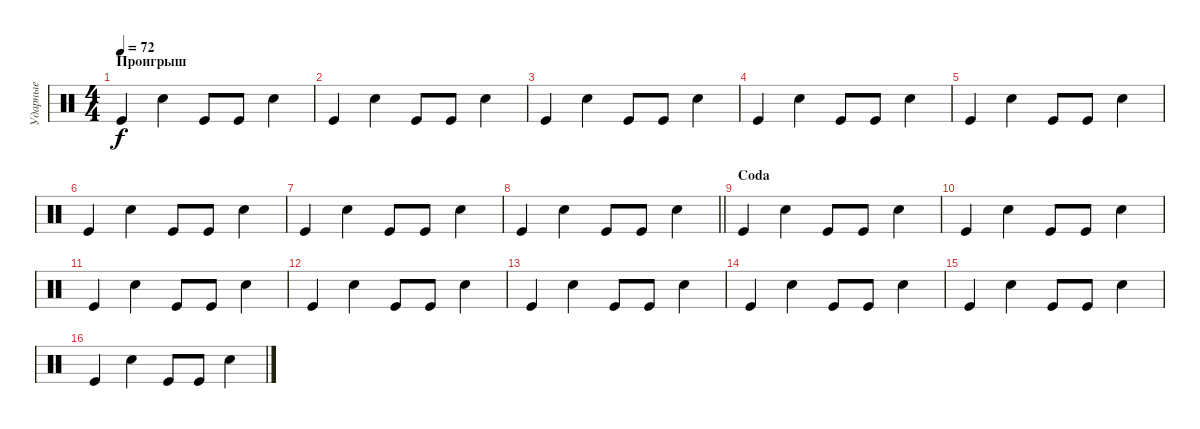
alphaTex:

\track ("Ударные" "Ударные") {instrument percussion}
\staff {score}
\articulation defaults
\ts (4 4)
\section ("" "Проигрыш")
\tempo 72
\clef neutral
\ks c "Kick (hit)".4{dy f} "Snare (hit) 2".4 "Kick (hit)".8 "Kick (hit)".8 "Snare (hit) 2".4
|
"Kick (hit)".4 "Snare (hit) 2".4 "Kick (hit)".8 "Kick (hit)".8 "Snare (hit) 2".4 |
"Kick (hit)".4 "Snare (hit) 2".4 "Kick (hit)".8 "Kick (hit)".8 "Snare (hit) 2".4 |
"Kick (hit)".4 "Snare (hit) 2".4 "Kick (hit)".8 "Kick (hit)".8 "Snare (hit) 2".4 |
"Kick (hit)".4 "Snare (hit) 2".4 "Kick (hit)".8 "Kick (hit)".8 "Snare (hit) 2".4 |
"Kick (hit)".4 "Snare (hit) 2".4 "Kick (hit)".8 "Kick (hit)".8 "Snare (hit) 2".4 |
"Kick (hit)".4 "Snare (hit) 2".4 "Kick (hit)".8 "Kick (hit)".8 "Snare (hit) 2".4 |
\barLineRight lightlight "Kick (hit)".4 "Snare (hit) 2".4 "Kick (hit)".8 "Kick (hit)".8 "Snare (hit) 2".4
|
\section ("" "Coda")
"Kick (hit)".4 "Snare (hit) 2".4 "Kick (hit)".8 "Kick (hit)".8 "Snare (hit) 2".4 |
"Kick (hit)".4 "Snare (hit) 2".4 "Kick (hit)".8 "Kick (hit)".8 "Snare (hit) 2".4 |
"Kick (hit)".4 "Snare (hit) 2".4 "Kick (hit)".8 "Kick (hit)".8 "Snare (hit) 2".4 |
"Kick (hit)".4 "Snare (hit) 2".4 "Kick (hit)".8 "Kick (hit)".8 "Snare (hit) 2".4 |
"Kick (hit)".4 "Snare (hit) 2".4 "Kick (hit)".8 "Kick (hit)".8 "Snare (hit) 2".4 |
"Kick (hit)".4 "Snare (hit) 2".4 "Kick (hit)".8 "Kick (hit)".8 "Snare (hit) 2".4 |
"Kick (hit)".4 "Snare (hit) 2".4 "Kick (hit)".8 "Kick (hit)".8 "Snare (hit) 2".4 |
"Kick (hit)".4 "Snare (hit) 2".4 "Kick (hit)".8 "Kick (hit)".8 "Snare (hit) 2".4
